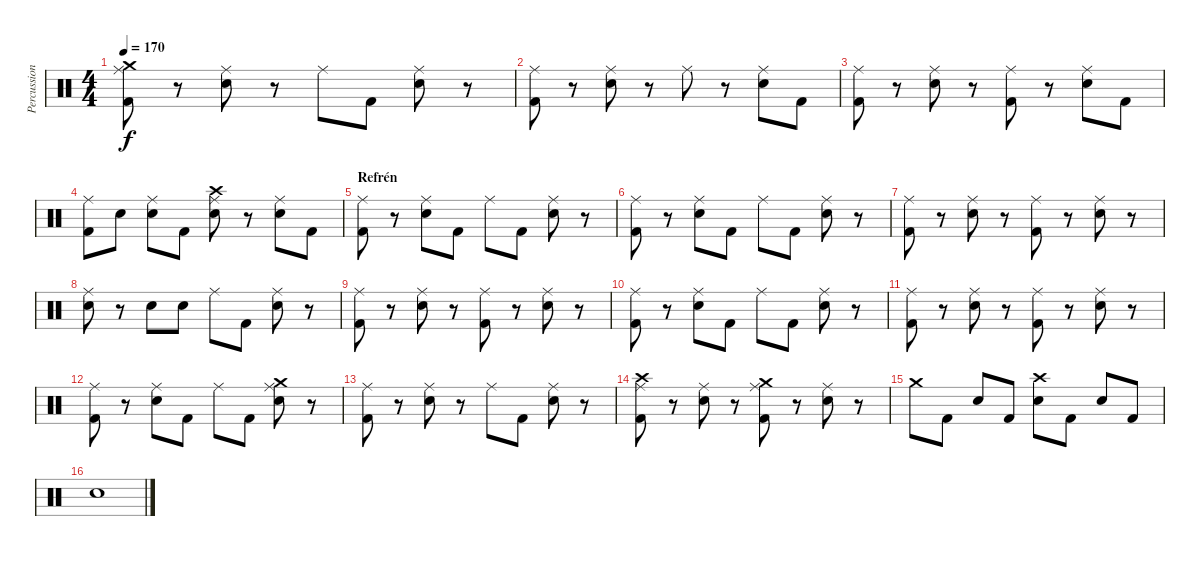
\track ("Percussion" "Percussion") {instrument percussion}
\staff {score}
\articulation defaults
\ts (4 4)
\tempo 170
\clef neutral
\ks c
("Ride (middle)" "Kick (hit) 2" "Crash medium (hit)").8{dy f} r.8 ("Ride (middle)" "Electric Snare (hit)").8 r.8 "Ride (middle)".8 "Kick (hit) 2".8 ("Ride (middle)" "Electric Snare (hit)").8 r.8 |
("Ride (middle)" "Kick (hit) 2").8 r.8 ("Ride (middle)" "Electric Snare (hit)").8 r.8 "Ride (middle)".8 r.8 ("Ride (middle)" "Electric Snare (hit)").8 "Kick (hit) 2".8 |
("Ride (middle)" "Kick (hit) 2").8 r.8 ("Ride (middle)" "Electric Snare (hit)").8 r.8 ("Ride (middle)" "Kick (hit) 2").8 r.8 ("Ride (middle)" "Electric Snare (hit)").8 "Kick (hit) 2".8 |
("Ride (middle)" "Kick (hit) 2").8 "Electric Snare (hit)".8 ("Ride (middle)" "Electric Snare (hit)").8 "Kick (hit) 2".8 ("Ride (middle)" "Crash high (hit)" "Electric Snare (hit)").8 r.8 ("Ride (middle)" "Electric Snare (hit)").8 "Kick (hit) 2".8 |
\section ("" "Refrén")
("Ride (middle)" "Kick (hit) 2").8 r.8 ("Ride (middle)" "Electric Snare (hit)").8 "Kick (hit) 2".8 "Ride (middle)".8 "Kick (hit) 2".8 ("Ride (middle)" "Electric Snare (hit)").8 r.8 |
("Ride (middle)" "Kick (hit) 2").8 r.8 ("Ride (middle)" "Electric Snare (hit)").8 "Kick (hit) 2".8 "Ride (middle)".8 "Kick (hit) 2".8 ("Ride (middle)" "Electric Snare (hit)").8 r.8 |
("Ride (middle)" "Kick (hit) 2").8 r.8 ("Ride (middle)" "Electric Snare (hit)").8 r.8 ("Ride (middle)" "Kick (hit) 2").8 r.8 ("Ride (middle)" "Electric Snare (hit)").8 r.8 |
("Ride (middle)" "Electric Snare (hit)").8 r.8 "Electric Snare (hit)".8 "Electric Snare (hit)".8 "Ride (middle)".8 "Kick (hit) 2".8 ("Ride (middle)" "Electric Snare (hit)").8 r.8 |
("Ride (middle)" "Kick (hit) 2").8 r.8 ("Ride (middle)" "Electric Snare (hit)").8 r.8 ("Ride (middle)" "Kick (hit) 2").8 r.8 ("Ride (middle)" "Electric Snare (hit)").8 r.8 |
("Ride (middle)" "Kick (hit) 2").8 r.8 ("Ride (middle)" "Electric Snare (hit)").8 "Kick (hit) 2".8 "Ride (middle)".8 "Kick (hit) 2".8 ("Ride (middle)" "Electric Snare (hit)").8 r.8 |
("Ride (middle)" "Kick (hit) 2").8 r.8 ("Ride (middle)" "Electric Snare (hit)").8 r.8 ("Ride (middle)" "Kick (hit) 2").8 r.8 ("Ride (middle)" "Electric Snare (hit)").8 r.8 |
("Ride (middle)" "Kick (hit) 2").8 r.8 ("Ride (middle)" "Electric Snare (hit)").8 "Kick (hit) 2".8 "Ride (middle)".8 "Kick (hit) 2".8 ("Ride (middle)" "Crash medium (hit)" "Electric Snare (hit)").8 r.8 |
("Ride (middle)" "Kick (hit) 2").8 r.8 ("Ride (middle)" "Electric Snare (hit)").8 r.8 "Ride (middle)".8 "Kick (hit) 2".8 ("Ride (middle)" "Electric Snare (hit)").8 r.8 |
("Ride (middle)" "Kick (hit) 2" "Crash high (hit)").8 r.8 ("Ride (middle)" "Electric Snare (hit)").8 r.8 ("Ride (middle)" "Kick (hit) 2" "Crash medium (hit)").8 r.8 ("Ride (middle)" "Electric Snare (hit)").8 r.8 |
"Crash medium (hit)".8 "Kick (hit) 2".8 "Electric Snare (hit)".8 "Kick (hit) 2".8 ("Crash high (hit)" "Electric Snare (hit)").8 "Kick (hit) 2".8 "Electric Snare (hit)".8 "Kick (hit) 2".8 |
"Electric Snare (hit)".1
